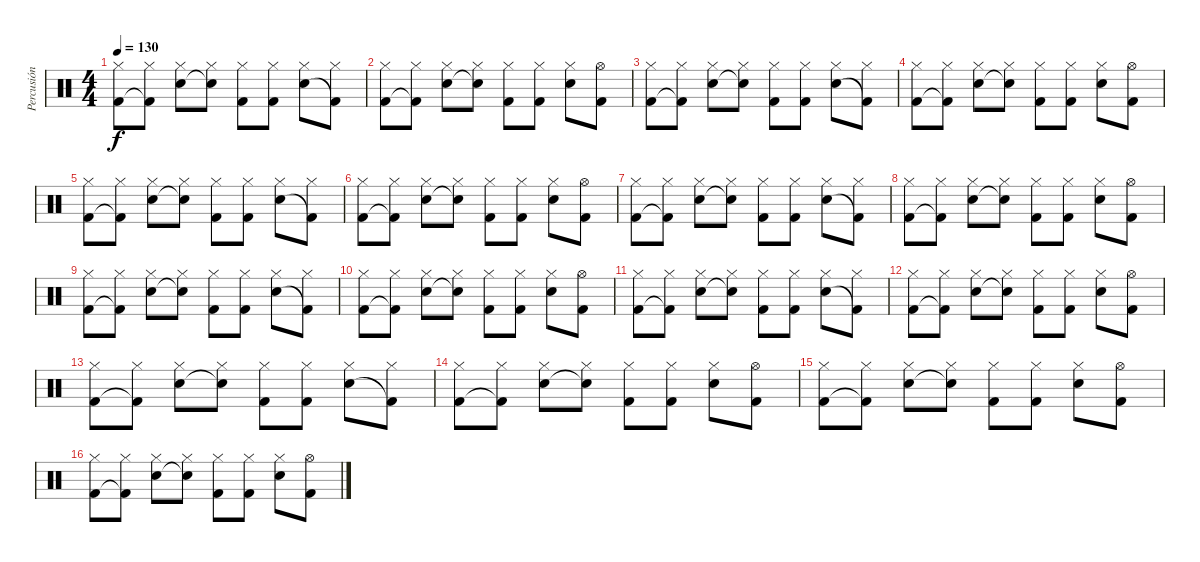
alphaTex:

\track ("Percusión" "Percusión") {instrument percussion}
\staff {score}
\articulation defaults
\ts (4 4)
\tempo 130
\clef neutral
\ks c
("Hi-Hat (closed)" "Kick (hit) 2").8{dy f} ("Hi-Hat (closed)" "Kick (hit) 2"{t}).8 ("Hi-Hat (closed)" "Electric Snare (hit)").8 ("Hi-Hat (closed)" "Snare (hit)"{t}).8 ("Hi-Hat (closed)" "Kick (hit) 2").8 ("Hi-Hat (closed)" "Kick (hit) 2").8 ("Hi-Hat (closed)" "Electric Snare (hit)").8 ("Hi-Hat (closed)" "Kick (hit) 2"{t}).8 |
("Hi-Hat (closed)" "Kick (hit) 2").8 ("Hi-Hat (closed)" "Kick (hit) 2"{t}).8 ("Hi-Hat (closed)" "Electric Snare (hit)").8 ("Hi-Hat (closed)" "Snare (hit)"{t}).8 ("Hi-Hat (closed)" "Kick (hit) 2").8 ("Hi-Hat (closed)" "Kick (hit) 2").8 ("Hi-Hat (closed)" "Electric Snare (hit)").8 ("Hi-Hat (open)" "Kick (hit) 2").8 |
("Hi-Hat (closed)" "Kick (hit) 2").8 ("Hi-Hat (closed)" "Kick (hit) 2"{t}).8 ("Hi-Hat (closed)" "Electric Snare (hit)").8 ("Hi-Hat (closed)" "Snare (hit)"{t}).8 ("Hi-Hat (closed)" "Kick (hit) 2").8 ("Hi-Hat (closed)" "Kick (hit) 2").8 ("Hi-Hat (closed)" "Electric Snare (hit)").8 ("Hi-Hat (closed)" "Kick (hit) 2"{t}).8 |
("Hi-Hat (closed)" "Kick (hit) 2").8 ("Hi-Hat (closed)" "Kick (hit) 2"{t}).8 ("Hi-Hat (closed)" "Electric Snare (hit)").8 ("Hi-Hat (closed)" "Snare (hit)"{t}).8 ("Hi-Hat (closed)" "Kick (hit) 2").8 ("Hi-Hat (closed)" "Kick (hit) 2").8 ("Hi-Hat (closed)" "Electric Snare (hit)").8 ("Hi-Hat (open)" "Kick (hit) 2").8 |
("Hi-Hat (closed)" "Kick (hit) 2").8 ("Hi-Hat (closed)" "Kick (hit) 2"{t}).8 ("Hi-Hat (closed)" "Electric Snare (hit)").8 ("Hi-Hat (closed)" "Snare (hit)"{t}).8 ("Hi-Hat (closed)" "Kick (hit) 2").8 ("Hi-Hat (closed)" "Kick (hit) 2").8 ("Hi-Hat (closed)" "Electric Snare (hit)").8 ("Hi-Hat (closed)" "Kick (hit) 2"{t}).8 |
("Hi-Hat (closed)" "Kick (hit) 2").8 ("Hi-Hat (closed)" "Kick (hit) 2"{t}).8 ("Hi-Hat (closed)" "Electric Snare (hit)").8 ("Hi-Hat (closed)" "Snare (hit)"{t}).8 ("Hi-Hat (closed)" "Kick (hit) 2").8 ("Hi-Hat (closed)" "Kick (hit) 2").8 ("Hi-Hat (closed)" "Electric Snare (hit)").8 ("Hi-Hat (open)" "Kick (hit) 2").8 |
("Hi-Hat (closed)" "Kick (hit) 2").8 ("Hi-Hat (closed)" "Kick (hit) 2"{t}).8 ("Hi-Hat (closed)" "Electric Snare (hit)").8 ("Hi-Hat (closed)" "Snare (hit)"{t}).8 ("Hi-Hat (closed)" "Kick (hit) 2").8 ("Hi-Hat (closed)" "Kick (hit) 2").8 ("Hi-Hat (closed)" "Electric Snare (hit)").8 ("Hi-Hat (closed)" "Kick (hit) 2"{t}).8 |
("Hi-Hat (closed)" "Kick (hit) 2").8 ("Hi-Hat (closed)" "Kick (hit) 2"{t}).8 ("Hi-Hat (closed)" "Electric Snare (hit)").8 ("Hi-Hat (closed)" "Snare (hit)"{t}).8 ("Hi-Hat (closed)" "Kick (hit) 2").8 ("Hi-Hat (closed)" "Kick (hit) 2").8 ("Hi-Hat (closed)" "Electric Snare (hit)").8 ("Hi-Hat (open)" "Kick (hit) 2").8 |
("Hi-Hat (closed)" "Kick (hit) 2").8 ("Hi-Hat (closed)" "Kick (hit) 2"{t}).8 ("Hi-Hat (closed)" "Electric Snare (hit)").8 ("Hi-Hat (closed)" "Snare (hit)"{t}).8 ("Hi-Hat (closed)" "Kick (hit) 2").8 ("Hi-Hat (closed)" "Kick (hit) 2").8 ("Hi-Hat (closed)" "Electric Snare (hit)").8 ("Hi-Hat (closed)" "Kick (hit) 2"{t}).8 |
("Hi-Hat (closed)" "Kick (hit) 2").8 ("Hi-Hat (closed)" "Kick (hit) 2"{t}).8 ("Hi-Hat (closed)" "Electric Snare (hit)").8 ("Hi-Hat (closed)" "Snare (hit)"{t}).8 ("Hi-Hat (closed)" "Kick (hit) 2").8 ("Hi-Hat (closed)" "Kick (hit) 2").8 ("Hi-Hat (closed)" "Electric Snare (hit)").8 ("Hi-Hat (open)" "Kick (hit) 2").8 |
("Hi-Hat (closed)" "Kick (hit) 2").8 ("Hi-Hat (closed)" "Kick (hit) 2"{t}).8 ("Hi-Hat (closed)" "Electric Snare (hit)").8 ("Hi-Hat (closed)" "Snare (hit)"{t}).8 ("Hi-Hat (closed)" "Kick (hit) 2").8 ("Hi-Hat (closed)" "Kick (hit) 2").8 ("Hi-Hat (closed)" "Electric Snare (hit)").8 ("Hi-Hat (closed)" "Kick (hit) 2"{t}).8 |
("Hi-Hat (closed)" "Kick (hit) 2").8 ("Hi-Hat (closed)" "Kick (hit) 2"{t}).8 ("Hi-Hat (closed)" "Electric Snare (hit)").8 ("Hi-Hat (closed)" "Snare (hit)"{t}).8 ("Hi-Hat (closed)" "Kick (hit) 2").8 ("Hi-Hat (closed)" "Kick (hit) 2").8 ("Hi-Hat (closed)" "Electric Snare (hit)").8 ("Hi-Hat (open)" "Kick (hit) 2").8 |
("Hi-Hat (closed)" "Kick (hit) 2").8 ("Hi-Hat (closed)" "Kick (hit) 2"{t}).8 ("Hi-Hat (closed)" "Electric Snare (hit)").8 ("Hi-Hat (closed)" "Snare (hit)"{t}).8 ("Hi-Hat (closed)" "Kick (hit) 2").8 ("Hi-Hat (closed)" "Kick (hit) 2").8 ("Hi-Hat (closed)" "Electric Snare (hit)").8 ("Hi-Hat (closed)" "Kick (hit) 2"{t}).8 |
("Hi-Hat (closed)" "Kick (hit) 2").8 ("Hi-Hat (closed)" "Kick (hit) 2"{t}).8 ("Hi-Hat (closed)" "Electric Snare (hit)").8 ("Hi-Hat (closed)" "Snare (hit)"{t}).8 ("Hi-Hat (closed)" "Kick (hit) 2").8 ("Hi-Hat (closed)" "Kick (hit) 2").8 ("Hi-Hat (closed)" "Electric Snare (hit)").8 ("Hi-Hat (open)" "Kick (hit) 2").8 |
("Hi-Hat (closed)" "Kick (hit) 2").8 ("Hi-Hat (closed)" "Kick (hit) 2"{t}).8 ("Hi-Hat (closed)" "Electric Snare (hit)").8 ("Hi-Hat (closed)" "Snare (hit)"{t}).8 ("Hi-Hat (closed)" "Kick (hit) 2").8 ("Hi-Hat (closed)" "Kick (hit) 2").8 ("Hi-Hat (closed)" "Electric Snare (hit)").8 ("Hi-Hat (open)" "Kick (hit) 2").8 |
("Hi-Hat (closed)" "Kick (hit) 2").8 ("Hi-Hat (closed)" "Kick (hit) 2"{t}).8 ("Hi-Hat (closed)" "Electric Snare (hit)").8 ("Hi-Hat (closed)" "Snare (hit)"{t}).8 ("Hi-Hat (closed)" "Kick (hit) 2").8 ("Hi-Hat (closed)" "Kick (hit) 2").8 ("Hi-Hat (closed)" "Electric Snare (hit)").8 ("Hi-Hat (open)" "Kick (hit) 2").8
